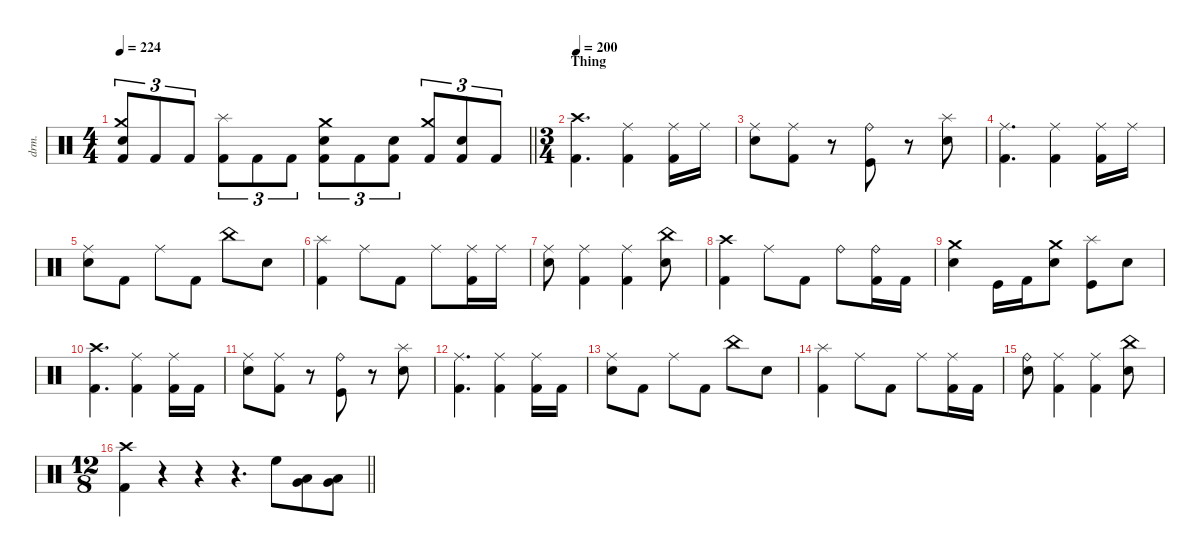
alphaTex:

\defaultSystemsLayout 4
\hideDynamics
\bracketExtendMode nobrackets
\otherSystemsTrackNameOrientation horizontal
\track ("Percussion" "drm.") {instrument percussion}
\staff {score}
\articulation defaults
\ts (4 4)
\tempo 224
\clef neutral
\barLineRight lightlight
\ks c
("Crash medium (hit)" "Snare (hit) 2" "Kick (hit) 2").8{tu (3 2) dy f beam Up} "Kick (hit) 2".8{tu (3 2) beam Up} "Kick (hit) 2".8{tu (3 2) beam Up} ("Splash (hit)" "Kick (hit) 2").8{tu (3 2) beam Down} "Kick (hit) 2".8{tu (3 2) beam Down} "Kick (hit) 2".8{tu (3 2) beam Down} ("Crash medium (hit)" "Snare (hit) 2" "Kick (hit) 2").8{tu (3 2) beam Down} "Kick (hit) 2".8{tu (3 2) beam Down} ("Snare (hit) 2" "Kick (hit) 2").8{tu (3 2) beam Down} ("Crash medium (hit)" "Kick (hit) 2").8{tu (3 2) beam Up} ("Snare (hit) 2" "Kick (hit) 2").8{tu (3 2) beam Up} "Kick (hit) 2".8{tu (3 2) beam Up} |
\ts (3 4)
\beaming (8 2 2 2)
\section ("" "Thing")
\tempo 200
("Crash high (hit)" "Kick (hit) 2").4{d beam Down} ("Ride (middle)" "Kick (hit) 2").4{beam Down} ("Ride (middle)" "Kick (hit) 2").16{beam Down} "Ride (middle)".16{beam Down} |
("Ride (middle)" "Snare (hit) 2").8{beam Down} ("Ride (middle)" "Kick (hit) 2").8{beam Down} r.8{beam Down} ("Ride (bell)" "Kick (hit)").8{beam Down} r.8{beam Down} ("Splash (hit)" "Snare (hit) 2").8{beam Down} |
("Ride (middle)" "Kick (hit) 2").4{d beam Down} ("Ride (middle)" "Kick (hit) 2").4{beam Down} ("Ride (middle)" "Kick (hit) 2").16{beam Down} "Ride (middle)".16{beam Down} |
("Ride (middle)" "Snare (hit) 2").8{beam Down} "Kick (hit) 2".8{beam Down} "Ride (middle)".8{beam Down} "Kick (hit) 2".8{beam Down} "China (hit)".8{beam Down} "Snare (hit) 2".8{beam Down} |
("Splash (hit)" "Kick (hit) 2").4{beam Down} "Ride (middle)".8{beam Down} "Kick (hit) 2".8{beam Down} "Ride (middle)".8{beam Down} ("Ride (middle)" "Kick (hit) 2").16{beam Down} "Ride (middle)".16{beam Down} |
("Ride (middle)" "Snare (hit) 2").8{beam Down} ("Ride (middle)" "Kick (hit) 2").4{beam Down} ("Ride (middle)" "Kick (hit) 2").4{beam Down} ("China (hit)" "Snare (hit) 2").8{beam Down} |
("Crash high (hit)" "Kick (hit) 2").4{beam Down} "Ride (middle)".8{beam Down} "Kick (hit) 2".8{beam Down} "Ride (bell)".8{beam Down} ("Ride (bell)" "Kick (hit) 2").16{beam Down} "Kick (hit) 2".16{beam Down} |
("Crash medium (hit)" "Snare (hit) 2").4{beam Down} "Kick (hit)".16{beam Down} "Kick (hit) 2".16{beam Down} ("Crash medium (hit)" "Snare (hit) 2").8{beam Down} ("Splash (hit)" "Kick (hit)").8{beam Down} "Snare (hit) 2".8{beam Down} |
("Crash high (hit)" "Kick (hit) 2").4{d beam Down} ("Ride (middle)" "Kick (hit) 2").4{beam Down} ("Ride (middle)" "Kick (hit) 2").16{beam Down} "Kick (hit) 2".16{beam Down} |
("Ride (middle)" "Snare (hit) 2").8{beam Down} ("Ride (middle)" "Kick (hit) 2").8{beam Down} r.8{beam Down} ("Ride (bell)" "Kick (hit)").8{beam Down} r.8{beam Down} ("Splash (hit)" "Snare (hit) 2").8{beam Down} |
("Ride (middle)" "Kick (hit) 2").4{d beam Down} ("Ride (middle)" "Kick (hit) 2").4{beam Down} ("Ride (middle)" "Kick (hit) 2").16{beam Down} "Kick (hit) 2".16{beam Down} |
("Ride (middle)" "Snare (hit) 2").8{beam Down} "Kick (hit) 2".8{beam Down} "Ride (middle)".8{beam Down} "Kick (hit) 2".8{beam Down} "China (hit)".8{beam Down} "Snare (hit) 2".8{beam Down} |
("Splash (hit)" "Kick (hit) 2").4{beam Down} "Ride (middle)".8{beam Down} "Kick (hit) 2".8{beam Down} "Ride (middle)".8{beam Down} ("Ride (middle)" "Kick (hit) 2").16{beam Down} "Kick (hit) 2".16{beam Down} |
("Ride (bell)" "Snare (hit) 2").8{beam Down} ("Ride (middle)" "Kick (hit) 2").4{beam Down} ("Ride (middle)" "Kick (hit) 2").4{beam Down} ("China (hit)" "Snare (hit) 2").8{beam Down} |
\ts (12 8)
\beaming (8 3 3 3 3)
\barLineRight lightlight
("Crash high (hit)" "Kick (hit) 2").4{beam Down} r.4{beam Down} r.4{beam Down} r.4{d beam Down} "High Floor Tom (hit)".8{beam Down} ("Low Tom (hit)" "Very Low Tom (hit)").8{beam Down} ("Very Low Tom (hit)" "Low Floor Tom (hit)").8{beam Down}
